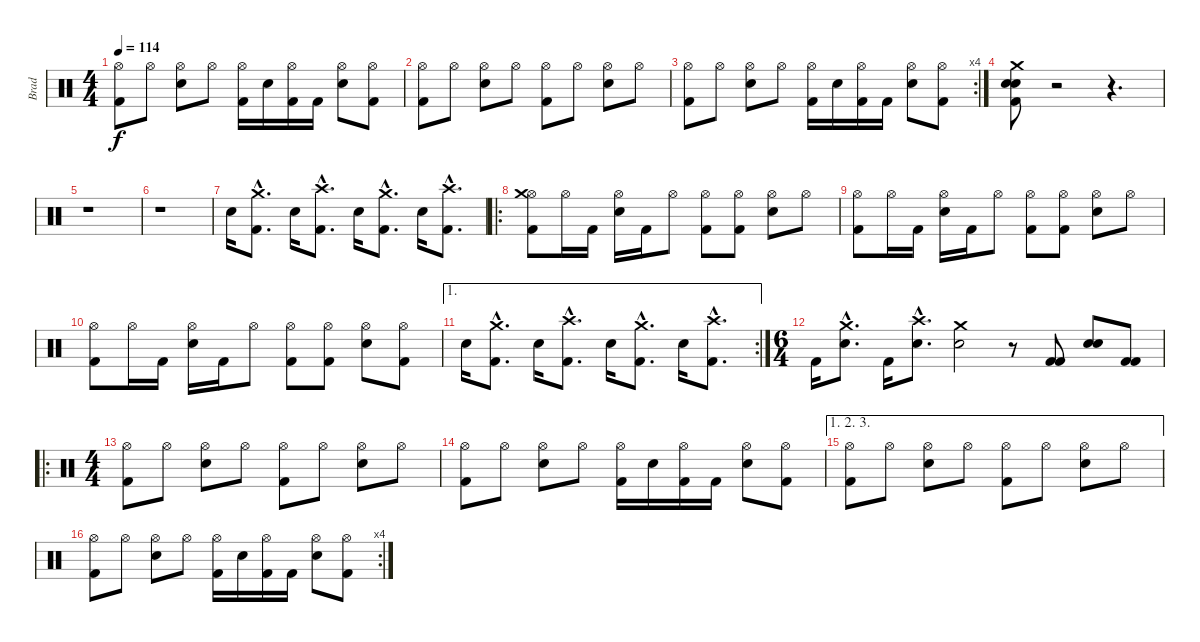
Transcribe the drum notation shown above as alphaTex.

\track ("Brad" "Brad") {instrument percussion}
\staff {score}
\articulation defaults
\ts (4 4)
\tempo 114
\clef neutral
\ks c
("Hi-Hat (open)" "Kick (hit) 2").8{dy f} "Hi-Hat (open)".8 ("Hi-Hat (open)" "Snare (hit) 2").8 "Hi-Hat (open)".8 ("Hi-Hat (open)" "Kick (hit) 2").16 "Snare (hit) 2".16 ("Hi-Hat (open)" "Kick (hit) 2").16 "Kick (hit) 2".16 ("Hi-Hat (open)" "Snare (hit) 2").8 ("Hi-Hat (open)" "Kick (hit) 2").8 |
("Hi-Hat (open)" "Kick (hit) 2").8 "Hi-Hat (open)".8 ("Hi-Hat (open)" "Snare (hit) 2").8 "Hi-Hat (open)".8 ("Hi-Hat (open)" "Kick (hit) 2").8 "Hi-Hat (open)".8 ("Hi-Hat (open)" "Snare (hit) 2").8 "Hi-Hat (open)".8 |
\rc 4
("Hi-Hat (open)" "Kick (hit) 2").8 "Hi-Hat (open)".8 ("Hi-Hat (open)" "Snare (hit) 2").8 "Hi-Hat (open)".8 ("Hi-Hat (open)" "Kick (hit) 2").16 "Snare (hit) 2".16 ("Hi-Hat (open)" "Kick (hit) 2").16 "Kick (hit) 2".16 ("Hi-Hat (open)" "Snare (hit) 2").8 ("Hi-Hat (open)" "Kick (hit) 2").8 |
("Crash medium (hit)" "Kick (hit) 2" "Snare (hit) 2" "Snare (hit) 2").8 r.2 r.4{d} |
r.1 |
r.1 |
"Snare (hit) 2".16 ("Kick (hit) 2"{hac} "Crash medium (hit)"{hac}).8{d} "Snare (hit) 2".16 ("Kick (hit) 2"{hac} "Crash high (hit)"{hac}).8{d} "Snare (hit) 2".16 ("Kick (hit) 2"{hac} "Crash medium (hit)"{hac}).8{d} "Snare (hit) 2".16 ("Kick (hit) 2"{hac} "Crash high (hit)"{hac}).8{d} |
\ro
("Hi-Hat (open)" "Kick (hit) 2" "Crash medium (hit)").8 "Hi-Hat (open)".16 "Kick (hit) 2".16 ("Hi-Hat (open)" "Snare (hit) 2").16 "Kick (hit) 2".16 "Hi-Hat (open)".8 ("Hi-Hat (open)" "Kick (hit) 2").8 ("Hi-Hat (open)" "Kick (hit) 2").8 ("Hi-Hat (open)" "Snare (hit) 2").8 "Hi-Hat (open)".8 |
("Hi-Hat (open)" "Kick (hit) 2").8 "Hi-Hat (open)".16 "Kick (hit) 2".16 ("Hi-Hat (open)" "Snare (hit) 2").16 "Kick (hit) 2".16 "Hi-Hat (open)".8 ("Hi-Hat (open)" "Kick (hit) 2").8 ("Hi-Hat (open)" "Kick (hit) 2").8 ("Hi-Hat (open)" "Snare (hit) 2").8 "Hi-Hat (open)".8 |
("Hi-Hat (open)" "Kick (hit) 2").8 "Hi-Hat (open)".16 "Kick (hit) 2".16 ("Hi-Hat (open)" "Snare (hit) 2").16 "Kick (hit) 2".16 "Hi-Hat (open)".8 ("Hi-Hat (open)" "Kick (hit) 2").8 ("Hi-Hat (open)" "Kick (hit) 2").8 ("Hi-Hat (open)" "Snare (hit) 2").8 ("Hi-Hat (open)" "Kick (hit) 2").8 |
\ae 1
\rc 2 "Snare (hit) 2".16
("Kick (hit) 2"{hac} "Crash medium (hit)"{hac}).8{d} "Snare (hit) 2".16 ("Kick (hit) 2"{hac} "Crash high (hit)"{hac}).8{d} "Snare (hit) 2".16 ("Kick (hit) 2"{hac} "Crash medium (hit)"{hac}).8{d} "Snare (hit) 2".16 ("Kick (hit) 2"{hac} "Crash high (hit)"{hac}).8{d} |
\ts (6 4)
"Kick (hit) 2".16 ("Snare (hit) 2"{hac} "Crash medium (hit)"{hac}).8{d} "Kick (hit) 2".16 ("Snare (hit) 2"{hac} "Crash high (hit)"{hac}).8{d} ("Snare (hit) 2" "Crash medium (hit)").2 r.8 ("Kick (hit) 2" "Kick (hit) 2").8 ("Snare (hit) 2" "Snare (hit) 2").8 ("Kick (hit) 2" "Kick (hit) 2").8 |
\ro
\ts (4 4)
("Hi-Hat (open)" "Kick (hit) 2").8 "Hi-Hat (open)".8 ("Hi-Hat (open)" "Snare (hit) 2").8 "Hi-Hat (open)".8 ("Hi-Hat (open)" "Kick (hit) 2").8 "Hi-Hat (open)".8 ("Hi-Hat (open)" "Snare (hit) 2").8 "Hi-Hat (open)".8 |
("Hi-Hat (open)" "Kick (hit) 2").8 "Hi-Hat (open)".8 ("Hi-Hat (open)" "Snare (hit) 2").8 "Hi-Hat (open)".8 ("Hi-Hat (open)" "Kick (hit) 2").16 "Snare (hit) 2".16 ("Hi-Hat (open)" "Kick (hit) 2").16 "Kick (hit) 2".16 ("Hi-Hat (open)" "Snare (hit) 2").8 ("Hi-Hat (open)" "Kick (hit) 2").8 |
\ae (1 2 3)
("Hi-Hat (open)" "Kick (hit) 2").8 "Hi-Hat (open)".8 ("Hi-Hat (open)" "Snare (hit) 2").8 "Hi-Hat (open)".8 ("Hi-Hat (open)" "Kick (hit) 2").8 "Hi-Hat (open)".8 ("Hi-Hat (open)" "Snare (hit) 2").8 "Hi-Hat (open)".8 |
\rc 4
("Hi-Hat (open)" "Kick (hit) 2").8 "Hi-Hat (open)".8 ("Hi-Hat (open)" "Snare (hit) 2").8 "Hi-Hat (open)".8 ("Hi-Hat (open)" "Kick (hit) 2").16 "Snare (hit) 2".16 ("Hi-Hat (open)" "Kick (hit) 2").16 "Kick (hit) 2".16 ("Hi-Hat (open)" "Snare (hit) 2").8 ("Hi-Hat (open)" "Kick (hit) 2").8
